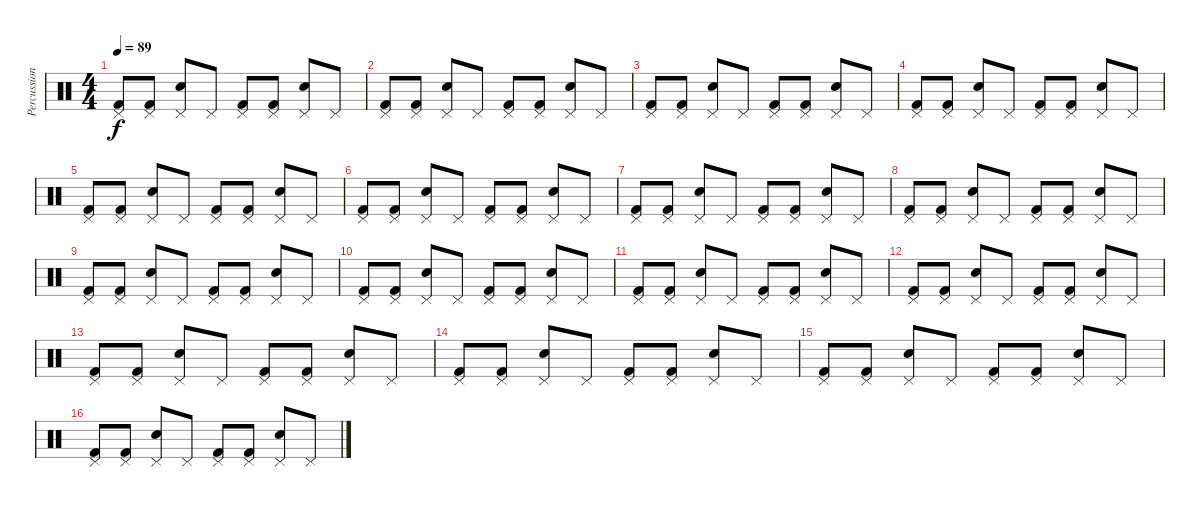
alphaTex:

\track ("Percussions" "Percussion") {instrument percussion}
\staff {score}
\articulation defaults
\ts (4 4)
\tempo 89
\clef neutral
\ks c
("Kick (hit) 2" "Pedal Hi-Hat (hit)").8{dy f} ("Kick (hit) 2" "Pedal Hi-Hat (hit)").8 ("Snare (hit) 2" "Pedal Hi-Hat (hit)").8 "Pedal Hi-Hat (hit)".8 ("Kick (hit) 2" "Pedal Hi-Hat (hit)").8 ("Kick (hit) 2" "Pedal Hi-Hat (hit)").8 ("Snare (hit) 2" "Pedal Hi-Hat (hit)").8 "Pedal Hi-Hat (hit)".8 |
("Kick (hit) 2" "Pedal Hi-Hat (hit)").8 ("Kick (hit) 2" "Pedal Hi-Hat (hit)").8 ("Snare (hit) 2" "Pedal Hi-Hat (hit)").8 "Pedal Hi-Hat (hit)".8 ("Kick (hit) 2" "Pedal Hi-Hat (hit)").8 ("Kick (hit) 2" "Pedal Hi-Hat (hit)").8 ("Snare (hit) 2" "Pedal Hi-Hat (hit)").8 "Pedal Hi-Hat (hit)".8 |
("Kick (hit) 2" "Pedal Hi-Hat (hit)").8 ("Kick (hit) 2" "Pedal Hi-Hat (hit)").8 ("Snare (hit) 2" "Pedal Hi-Hat (hit)").8 "Pedal Hi-Hat (hit)".8 ("Kick (hit) 2" "Pedal Hi-Hat (hit)").8 ("Kick (hit) 2" "Pedal Hi-Hat (hit)").8 ("Snare (hit) 2" "Pedal Hi-Hat (hit)").8 "Pedal Hi-Hat (hit)".8 |
("Kick (hit) 2" "Pedal Hi-Hat (hit)").8 ("Kick (hit) 2" "Pedal Hi-Hat (hit)").8 ("Snare (hit) 2" "Pedal Hi-Hat (hit)").8 "Pedal Hi-Hat (hit)".8 ("Kick (hit) 2" "Pedal Hi-Hat (hit)").8 ("Kick (hit) 2" "Pedal Hi-Hat (hit)").8 ("Snare (hit) 2" "Pedal Hi-Hat (hit)").8 "Pedal Hi-Hat (hit)".8 |
("Kick (hit) 2" "Pedal Hi-Hat (hit)").8 ("Kick (hit) 2" "Pedal Hi-Hat (hit)").8 ("Snare (hit) 2" "Pedal Hi-Hat (hit)").8 "Pedal Hi-Hat (hit)".8 ("Kick (hit) 2" "Pedal Hi-Hat (hit)").8 ("Kick (hit) 2" "Pedal Hi-Hat (hit)").8 ("Snare (hit) 2" "Pedal Hi-Hat (hit)").8 "Pedal Hi-Hat (hit)".8 |
("Kick (hit) 2" "Pedal Hi-Hat (hit)").8 ("Kick (hit) 2" "Pedal Hi-Hat (hit)").8 ("Snare (hit) 2" "Pedal Hi-Hat (hit)").8 "Pedal Hi-Hat (hit)".8 ("Kick (hit) 2" "Pedal Hi-Hat (hit)").8 ("Kick (hit) 2" "Pedal Hi-Hat (hit)").8 ("Snare (hit) 2" "Pedal Hi-Hat (hit)").8 "Pedal Hi-Hat (hit)".8 |
("Kick (hit) 2" "Pedal Hi-Hat (hit)").8 ("Kick (hit) 2" "Pedal Hi-Hat (hit)").8 ("Snare (hit) 2" "Pedal Hi-Hat (hit)").8 "Pedal Hi-Hat (hit)".8 ("Kick (hit) 2" "Pedal Hi-Hat (hit)").8 ("Kick (hit) 2" "Pedal Hi-Hat (hit)").8 ("Snare (hit) 2" "Pedal Hi-Hat (hit)").8 "Pedal Hi-Hat (hit)".8 |
("Kick (hit) 2" "Pedal Hi-Hat (hit)").8 ("Kick (hit) 2" "Pedal Hi-Hat (hit)").8 ("Snare (hit) 2" "Pedal Hi-Hat (hit)").8 "Pedal Hi-Hat (hit)".8 ("Kick (hit) 2" "Pedal Hi-Hat (hit)").8 ("Kick (hit) 2" "Pedal Hi-Hat (hit)").8 ("Snare (hit) 2" "Pedal Hi-Hat (hit)").8 "Pedal Hi-Hat (hit)".8 |
("Kick (hit) 2" "Pedal Hi-Hat (hit)").8 ("Kick (hit) 2" "Pedal Hi-Hat (hit)").8 ("Snare (hit) 2" "Pedal Hi-Hat (hit)").8 "Pedal Hi-Hat (hit)".8 ("Kick (hit) 2" "Pedal Hi-Hat (hit)").8 ("Kick (hit) 2" "Pedal Hi-Hat (hit)").8 ("Snare (hit) 2" "Pedal Hi-Hat (hit)").8 "Pedal Hi-Hat (hit)".8 |
("Kick (hit) 2" "Pedal Hi-Hat (hit)").8 ("Kick (hit) 2" "Pedal Hi-Hat (hit)").8 ("Snare (hit) 2" "Pedal Hi-Hat (hit)").8 "Pedal Hi-Hat (hit)".8 ("Kick (hit) 2" "Pedal Hi-Hat (hit)").8 ("Kick (hit) 2" "Pedal Hi-Hat (hit)").8 ("Snare (hit) 2" "Pedal Hi-Hat (hit)").8 "Pedal Hi-Hat (hit)".8 |
("Kick (hit) 2" "Pedal Hi-Hat (hit)").8 ("Kick (hit) 2" "Pedal Hi-Hat (hit)").8 ("Snare (hit) 2" "Pedal Hi-Hat (hit)").8 "Pedal Hi-Hat (hit)".8 ("Kick (hit) 2" "Pedal Hi-Hat (hit)").8 ("Kick (hit) 2" "Pedal Hi-Hat (hit)").8 ("Snare (hit) 2" "Pedal Hi-Hat (hit)").8 "Pedal Hi-Hat (hit)".8 |
("Kick (hit) 2" "Pedal Hi-Hat (hit)").8 ("Kick (hit) 2" "Pedal Hi-Hat (hit)").8 ("Snare (hit) 2" "Pedal Hi-Hat (hit)").8 "Pedal Hi-Hat (hit)".8 ("Kick (hit) 2" "Pedal Hi-Hat (hit)").8 ("Kick (hit) 2" "Pedal Hi-Hat (hit)").8 ("Snare (hit) 2" "Pedal Hi-Hat (hit)").8 "Pedal Hi-Hat (hit)".8 |
("Kick (hit) 2" "Pedal Hi-Hat (hit)").8 ("Kick (hit) 2" "Pedal Hi-Hat (hit)").8 ("Snare (hit) 2" "Pedal Hi-Hat (hit)").8 "Pedal Hi-Hat (hit)".8 ("Kick (hit) 2" "Pedal Hi-Hat (hit)").8 ("Kick (hit) 2" "Pedal Hi-Hat (hit)").8 ("Snare (hit) 2" "Pedal Hi-Hat (hit)").8 "Pedal Hi-Hat (hit)".8 |
("Kick (hit) 2" "Pedal Hi-Hat (hit)").8 ("Kick (hit) 2" "Pedal Hi-Hat (hit)").8 ("Snare (hit) 2" "Pedal Hi-Hat (hit)").8 "Pedal Hi-Hat (hit)".8 ("Kick (hit) 2" "Pedal Hi-Hat (hit)").8 ("Kick (hit) 2" "Pedal Hi-Hat (hit)").8 ("Snare (hit) 2" "Pedal Hi-Hat (hit)").8 "Pedal Hi-Hat (hit)".8 |
("Kick (hit) 2" "Pedal Hi-Hat (hit)").8 ("Kick (hit) 2" "Pedal Hi-Hat (hit)").8 ("Snare (hit) 2" "Pedal Hi-Hat (hit)").8 "Pedal Hi-Hat (hit)".8 ("Kick (hit) 2" "Pedal Hi-Hat (hit)").8 ("Kick (hit) 2" "Pedal Hi-Hat (hit)").8 ("Snare (hit) 2" "Pedal Hi-Hat (hit)").8 "Pedal Hi-Hat (hit)".8 |
("Kick (hit) 2" "Pedal Hi-Hat (hit)").8 ("Kick (hit) 2" "Pedal Hi-Hat (hit)").8 ("Snare (hit) 2" "Pedal Hi-Hat (hit)").8 "Pedal Hi-Hat (hit)".8 ("Kick (hit) 2" "Pedal Hi-Hat (hit)").8 ("Kick (hit) 2" "Pedal Hi-Hat (hit)").8 ("Snare (hit) 2" "Pedal Hi-Hat (hit)").8 "Pedal Hi-Hat (hit)".8
